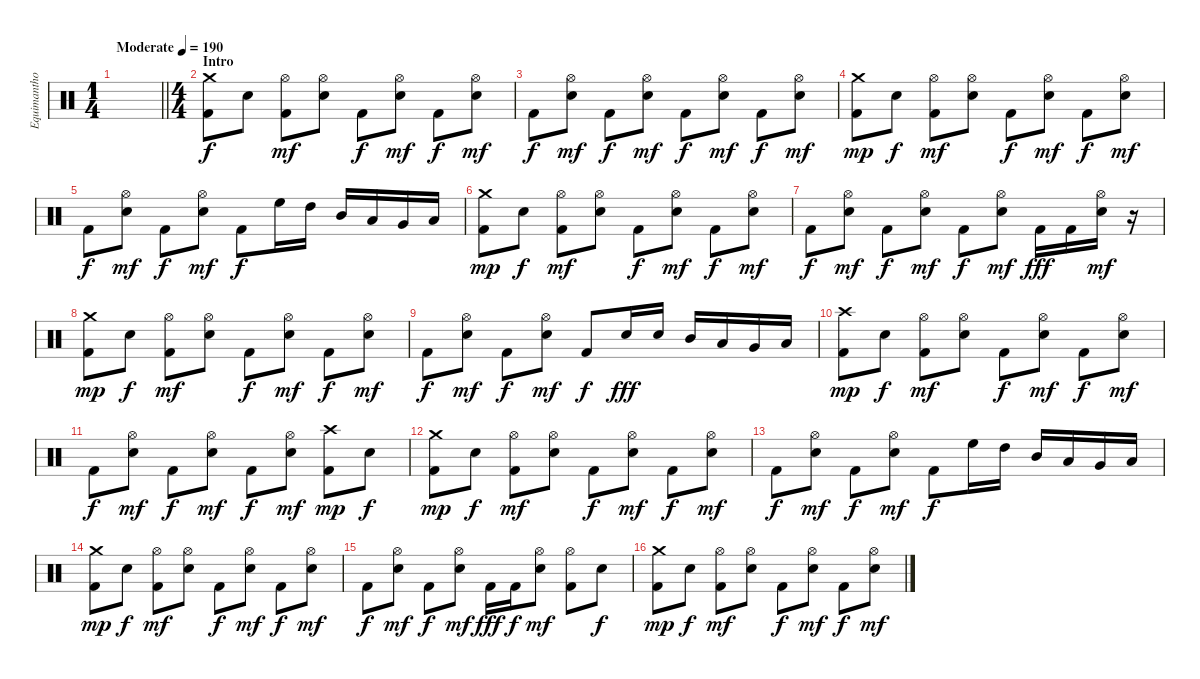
\track ("Equimanthorn" "Equimantho") {instrument percussion}
\staff {score}
\articulation defaults
\ts (1 4)
\tempo (190 "Moderate")
\clef neutral
\barLineRight lightlight
\ks c
|
\ts (4 4)
\section ("" "Intro")
("Crash medium (hit)" "Kick (hit) 2").8 "Electric Snare (hit)".8{dy f} ("Hi-Hat (open)" "Kick (hit) 2").8{dy mf} ("Hi-Hat (open)" "Electric Snare (hit)").8 "Kick (hit) 2".8{dy f} ("Hi-Hat (open)" "Electric Snare (hit)").8{dy mf} "Kick (hit) 2".8{dy f} ("Hi-Hat (open)" "Electric Snare (hit)").8{dy mf} |
"Kick (hit) 2".8{dy f} ("Hi-Hat (open)" "Electric Snare (hit)").8{dy mf} "Kick (hit) 2".8{dy f} ("Hi-Hat (open)" "Electric Snare (hit)").8{dy mf} "Kick (hit) 2".8{dy f} ("Hi-Hat (open)" "Electric Snare (hit)").8{dy mf} "Kick (hit) 2".8{dy f} ("Hi-Hat (open)" "Electric Snare (hit)").8{dy mf} |
("Crash medium (hit)" "Kick (hit) 2").8{dy mp} "Electric Snare (hit)".8{dy f} ("Hi-Hat (open)" "Kick (hit) 2").8{dy mf} ("Hi-Hat (open)" "Electric Snare (hit)").8 "Kick (hit) 2".8{dy f} ("Hi-Hat (open)" "Electric Snare (hit)").8{dy mf} "Kick (hit) 2".8{dy f} ("Hi-Hat (open)" "Electric Snare (hit)").8{dy mf} |
"Kick (hit) 2".8{dy f} ("Hi-Hat (open)" "Electric Snare (hit)").8{dy mf} "Kick (hit) 2".8{dy f} ("Hi-Hat (open)" "Electric Snare (hit)").8{dy mf} "Kick (hit) 2".8{dy f} "High Floor Tom (hit)".16 "High Tom (hit)".16 "Mid Tom (hit)".16 "Low Tom (hit)".16 "Very Low Tom (hit)".16 "Low Floor Tom (hit)".16 |
("Crash medium (hit)" "Kick (hit) 2").8{dy mp} "Electric Snare (hit)".8{dy f} ("Hi-Hat (open)" "Kick (hit) 2").8{dy mf} ("Hi-Hat (open)" "Electric Snare (hit)").8 "Kick (hit) 2".8{dy f} ("Hi-Hat (open)" "Electric Snare (hit)").8{dy mf} "Kick (hit) 2".8{dy f} ("Hi-Hat (open)" "Electric Snare (hit)").8{dy mf} |
"Kick (hit) 2".8{dy f} ("Hi-Hat (open)" "Electric Snare (hit)").8{dy mf} "Kick (hit) 2".8{dy f} ("Hi-Hat (open)" "Electric Snare (hit)").8{dy mf} "Kick (hit) 2".8{dy f} ("Hi-Hat (open)" "Electric Snare (hit)").8{dy mf} "Kick (hit) 2".16{dy fff} "Kick (hit) 2".16 ("Hi-Hat (open)" "Electric Snare (hit)").16{dy mf} r.16 |
("Crash medium (hit)" "Kick (hit) 2").8{dy mp} "Electric Snare (hit)".8{dy f} ("Hi-Hat (open)" "Kick (hit) 2").8{dy mf} ("Hi-Hat (open)" "Electric Snare (hit)").8 "Kick (hit) 2".8{dy f} ("Hi-Hat (open)" "Electric Snare (hit)").8{dy mf} "Kick (hit) 2".8{dy f} ("Hi-Hat (open)" "Electric Snare (hit)").8{dy mf} |
"Kick (hit) 2".8{dy f} ("Hi-Hat (open)" "Electric Snare (hit)").8{dy mf} "Kick (hit) 2".8{dy f} ("Hi-Hat (open)" "Electric Snare (hit)").8{dy mf} "Kick (hit) 2".8{dy f} "Electric Snare (hit)".16{dy fff} "Electric Snare (hit)".16 "Mid Tom (hit)".16 "Low Tom (hit)".16 "Very Low Tom (hit)".16 "Low Floor Tom (hit)".16 |
("Crash high (hit)" "Kick (hit) 2").8{dy mp} "Electric Snare (hit)".8{dy f} ("Hi-Hat (open)" "Kick (hit) 2").8{dy mf} ("Hi-Hat (open)" "Electric Snare (hit)").8 "Kick (hit) 2".8{dy f} ("Hi-Hat (open)" "Electric Snare (hit)").8{dy mf} "Kick (hit) 2".8{dy f} ("Hi-Hat (open)" "Electric Snare (hit)").8{dy mf} |
"Kick (hit) 2".8{dy f} ("Hi-Hat (open)" "Electric Snare (hit)").8{dy mf} "Kick (hit) 2".8{dy f} ("Hi-Hat (open)" "Electric Snare (hit)").8{dy mf} "Kick (hit) 2".8{dy f} ("Hi-Hat (open)" "Electric Snare (hit)").8{dy mf} ("Crash high (hit)" "Kick (hit) 2").8{dy mp} "Electric Snare (hit)".8{dy f} |
("Crash medium (hit)" "Kick (hit) 2").8{dy mp} "Electric Snare (hit)".8{dy f} ("Hi-Hat (open)" "Kick (hit) 2").8{dy mf} ("Hi-Hat (open)" "Electric Snare (hit)").8 "Kick (hit) 2".8{dy f} ("Hi-Hat (open)" "Electric Snare (hit)").8{dy mf} "Kick (hit) 2".8{dy f} ("Hi-Hat (open)" "Electric Snare (hit)").8{dy mf} |
"Kick (hit) 2".8{dy f} ("Hi-Hat (open)" "Electric Snare (hit)").8{dy mf} "Kick (hit) 2".8{dy f} ("Hi-Hat (open)" "Electric Snare (hit)").8{dy mf} "Kick (hit) 2".8{dy f} "High Floor Tom (hit)".16 "High Tom (hit)".16 "Mid Tom (hit)".16 "Low Tom (hit)".16 "Very Low Tom (hit)".16 "Low Floor Tom (hit)".16 |
("Crash medium (hit)" "Kick (hit) 2").8{dy mp} "Electric Snare (hit)".8{dy f} ("Hi-Hat (open)" "Kick (hit) 2").8{dy mf} ("Hi-Hat (open)" "Electric Snare (hit)").8 "Kick (hit) 2".8{dy f} ("Hi-Hat (open)" "Electric Snare (hit)").8{dy mf} "Kick (hit) 2".8{dy f} ("Hi-Hat (open)" "Electric Snare (hit)").8{dy mf} |
"Kick (hit) 2".8{dy f} ("Hi-Hat (open)" "Electric Snare (hit)").8{dy mf} "Kick (hit) 2".8{dy f} ("Hi-Hat (open)" "Electric Snare (hit)").8{dy mf} "Kick (hit) 2".16{dy fff} "Kick (hit) 2".16{dy f} ("Hi-Hat (open)" "Electric Snare (hit)").8{dy mf} ("Hi-Hat (open)" "Kick (hit) 2").8 "Electric Snare (hit)".8{dy f} |
("Crash medium (hit)" "Kick (hit) 2").8{dy mp} "Electric Snare (hit)".8{dy f} ("Hi-Hat (open)" "Kick (hit) 2").8{dy mf} ("Hi-Hat (open)" "Electric Snare (hit)").8 "Kick (hit) 2".8{dy f} ("Hi-Hat (open)" "Electric Snare (hit)").8{dy mf} "Kick (hit) 2".8{dy f} ("Hi-Hat (open)" "Electric Snare (hit)").8{dy mf}
